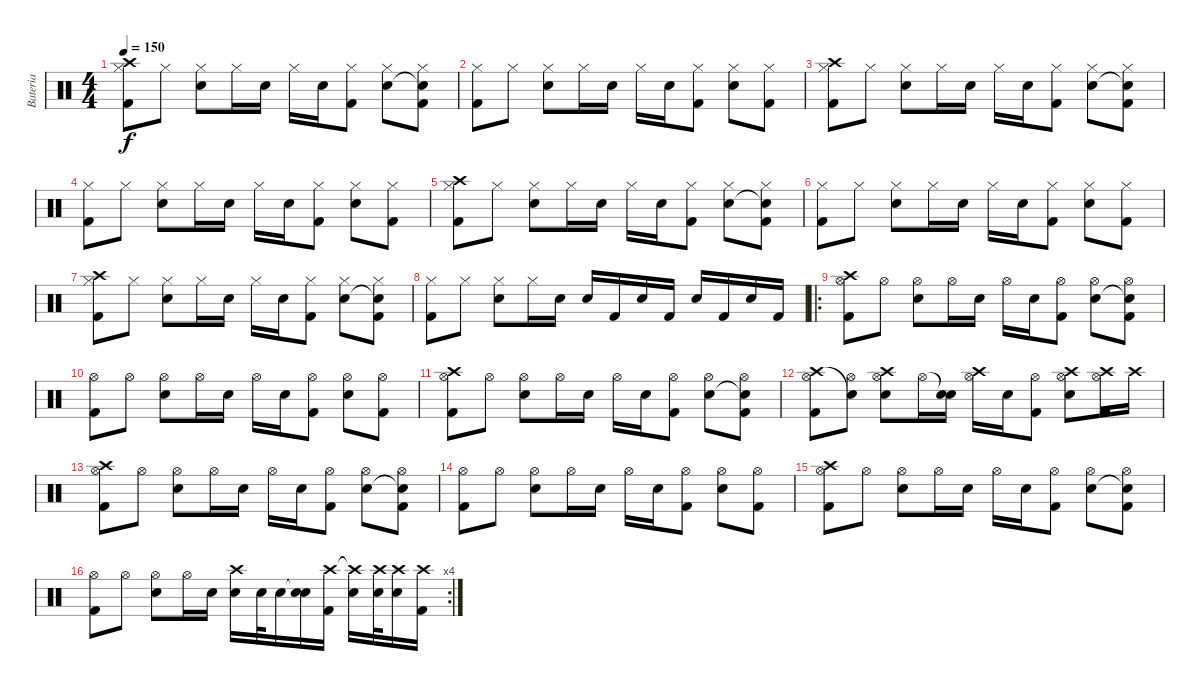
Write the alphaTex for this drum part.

\track ("Bateria" "Bateria") {instrument percussion}
\staff {score}
\articulation defaults
\ts (4 4)
\tempo 150
\clef neutral
\ks c
("Hi-Hat (closed)" "Crash high (hit)" "Kick (hit) 2").8{dy f} "Hi-Hat (closed)".8 ("Hi-Hat (closed)" "Snare (hit) 2").8 "Hi-Hat (closed)".16 "Snare (hit) 2".16 "Hi-Hat (closed)".16 "Snare (hit) 2".16 ("Hi-Hat (closed)" "Kick (hit) 2").8 ("Hi-Hat (closed)" "Snare (hit) 2").8 ("Hi-Hat (closed)" "Snare (hit)"{t} "Kick (hit) 2").8 |
("Hi-Hat (closed)" "Kick (hit) 2").8 "Hi-Hat (closed)".8 ("Hi-Hat (closed)" "Snare (hit) 2").8 "Hi-Hat (closed)".16 "Snare (hit) 2".16 "Hi-Hat (closed)".16 "Snare (hit) 2".16 ("Hi-Hat (closed)" "Kick (hit) 2").8 ("Hi-Hat (closed)" "Snare (hit) 2").8 ("Hi-Hat (closed)" "Kick (hit) 2").8 |
("Hi-Hat (closed)" "Crash high (hit)" "Kick (hit) 2").8 "Hi-Hat (closed)".8 ("Hi-Hat (closed)" "Snare (hit) 2").8 "Hi-Hat (closed)".16 "Snare (hit) 2".16 "Hi-Hat (closed)".16 "Snare (hit) 2".16 ("Hi-Hat (closed)" "Kick (hit) 2").8 ("Hi-Hat (closed)" "Snare (hit) 2").8 ("Hi-Hat (closed)" "Snare (hit)"{t} "Kick (hit) 2").8 |
("Hi-Hat (closed)" "Kick (hit) 2").8 "Hi-Hat (closed)".8 ("Hi-Hat (closed)" "Snare (hit) 2").8 "Hi-Hat (closed)".16 "Snare (hit) 2".16 "Hi-Hat (closed)".16 "Snare (hit) 2".16 ("Hi-Hat (closed)" "Kick (hit) 2").8 ("Hi-Hat (closed)" "Snare (hit) 2").8 ("Hi-Hat (closed)" "Kick (hit) 2").8 |
("Hi-Hat (closed)" "Crash high (hit)" "Kick (hit) 2").8 "Hi-Hat (closed)".8 ("Hi-Hat (closed)" "Snare (hit) 2").8 "Hi-Hat (closed)".16 "Snare (hit) 2".16 "Hi-Hat (closed)".16 "Snare (hit) 2".16 ("Hi-Hat (closed)" "Kick (hit) 2").8 ("Hi-Hat (closed)" "Snare (hit) 2").8 ("Hi-Hat (closed)" "Snare (hit)"{t} "Kick (hit) 2").8 |
("Hi-Hat (closed)" "Kick (hit) 2").8 "Hi-Hat (closed)".8 ("Hi-Hat (closed)" "Snare (hit) 2").8 "Hi-Hat (closed)".16 "Snare (hit) 2".16 "Hi-Hat (closed)".16 "Snare (hit) 2".16 ("Hi-Hat (closed)" "Kick (hit) 2").8 ("Hi-Hat (closed)" "Snare (hit) 2").8 ("Hi-Hat (closed)" "Kick (hit) 2").8 |
("Hi-Hat (closed)" "Crash high (hit)" "Kick (hit) 2").8 "Hi-Hat (closed)".8 ("Hi-Hat (closed)" "Snare (hit) 2").8 "Hi-Hat (closed)".16 "Snare (hit) 2".16 "Hi-Hat (closed)".16 "Snare (hit) 2".16 ("Hi-Hat (closed)" "Kick (hit) 2").8 ("Hi-Hat (closed)" "Snare (hit) 2").8 ("Hi-Hat (closed)" "Snare (hit)"{t} "Kick (hit) 2").8 |
("Hi-Hat (closed)" "Kick (hit) 2").8 "Hi-Hat (closed)".8 ("Hi-Hat (closed)" "Snare (hit) 2").8 "Hi-Hat (closed)".16 "Snare (hit) 2".16 "Snare (hit) 2".16 "Kick (hit) 2".16 "Snare (hit) 2".16 "Kick (hit) 2".16 "Snare (hit) 2".16 "Kick (hit) 2".16 "Snare (hit) 2".16 "Kick (hit) 2".16 |
\ro
("Hi-Hat (open)" "Crash high (hit)" "Kick (hit) 2").8 "Hi-Hat (open)".8 ("Hi-Hat (open)" "Snare (hit) 2").8 "Hi-Hat (open)".16 "Snare (hit) 2".16 "Hi-Hat (open)".16 "Snare (hit) 2".16 ("Hi-Hat (open)" "Kick (hit) 2").8 ("Hi-Hat (open)" "Snare (hit) 2").8 ("Hi-Hat (open)" "Snare (hit)"{t} "Kick (hit) 2").8 |
("Hi-Hat (open)" "Kick (hit) 2").8 "Hi-Hat (open)".8 ("Hi-Hat (open)" "Snare (hit) 2").8 "Hi-Hat (open)".16 "Snare (hit) 2".16 "Hi-Hat (open)".16 "Snare (hit) 2".16 ("Hi-Hat (open)" "Kick (hit) 2").8 ("Hi-Hat (open)" "Snare (hit) 2").8 ("Hi-Hat (open)" "Kick (hit) 2").8 |
("Hi-Hat (open)" "Crash high (hit)" "Kick (hit) 2").8 "Hi-Hat (open)".8 ("Hi-Hat (open)" "Snare (hit) 2").8 "Hi-Hat (open)".16 "Snare (hit) 2".16 "Hi-Hat (open)".16 "Snare (hit) 2".16 ("Hi-Hat (open)" "Kick (hit) 2").8 ("Hi-Hat (open)" "Snare (hit) 2").8 ("Hi-Hat (open)" "Snare (hit)"{t} "Kick (hit) 2").8 |
("Hi-Hat (open)" "Crash high (hit)" "Kick (hit) 2").8 ("Hi-Hat (open)" "Snare (hit)"{t}).8 ("Hi-Hat (open)" "Crash high (hit)" "Snare (hit) 2").8 "Hi-Hat (open)".16 ("Snare (hit)"{t} "Snare (hit) 2").16 ("Hi-Hat (open)" "Crash high (hit)").16 "Snare (hit) 2".16 ("Hi-Hat (open)" "Kick (hit) 2").8 ("Hi-Hat (open)" "Crash high (hit)" "Snare (hit) 2").8 ("Hi-Hat (open)" "Crash high (hit)" "Kick (hit) 2").16 "Crash high (hit)".16 |
("Hi-Hat (open)" "Crash high (hit)" "Kick (hit) 2").8 "Hi-Hat (open)".8 ("Hi-Hat (open)" "Snare (hit) 2").8 "Hi-Hat (open)".16 "Snare (hit) 2".16 "Hi-Hat (open)".16 "Snare (hit) 2".16 ("Hi-Hat (open)" "Kick (hit) 2").8 ("Hi-Hat (open)" "Snare (hit) 2").8 ("Hi-Hat (open)" "Snare (hit)"{t} "Kick (hit) 2").8 |
("Hi-Hat (open)" "Kick (hit) 2").8 "Hi-Hat (open)".8 ("Hi-Hat (open)" "Snare (hit) 2").8 "Hi-Hat (open)".16 "Snare (hit) 2".16 "Hi-Hat (open)".16 "Snare (hit) 2".16 ("Hi-Hat (open)" "Kick (hit) 2").8 ("Hi-Hat (open)" "Snare (hit) 2").8 ("Hi-Hat (open)" "Kick (hit) 2").8 |
("Hi-Hat (open)" "Crash high (hit)" "Kick (hit) 2").8 "Hi-Hat (open)".8 ("Hi-Hat (open)" "Snare (hit) 2").8 "Hi-Hat (open)".16 "Snare (hit) 2".16 "Hi-Hat (open)".16 "Snare (hit) 2".16 ("Hi-Hat (open)" "Kick (hit) 2").8 ("Hi-Hat (open)" "Snare (hit) 2").8 ("Hi-Hat (open)" "Snare (hit)"{t} "Kick (hit) 2").8 |
\rc 4
("Hi-Hat (open)" "Kick (hit) 2").8 "Hi-Hat (open)".8 ("Hi-Hat (open)" "Snare (hit) 2").8 "Hi-Hat (open)".16 "Snare (hit) 2".16 ("Crash high (hit)" "Snare (hit) 2").16 "Snare (hit) 2".32 "Snare (hit) 2".16 ("Snare (hit)"{t} "Snare (hit) 2").16 ("Crash high (hit)" "Kick (hit) 2").16 ("Crash high (hit)"{t} "Snare (hit) 2").16 ("Crash high (hit)" "Snare (hit) 2").32 ("Crash high (hit)" "Snare (hit) 2").16 ("Crash high (hit)" "Kick (hit) 2").16
